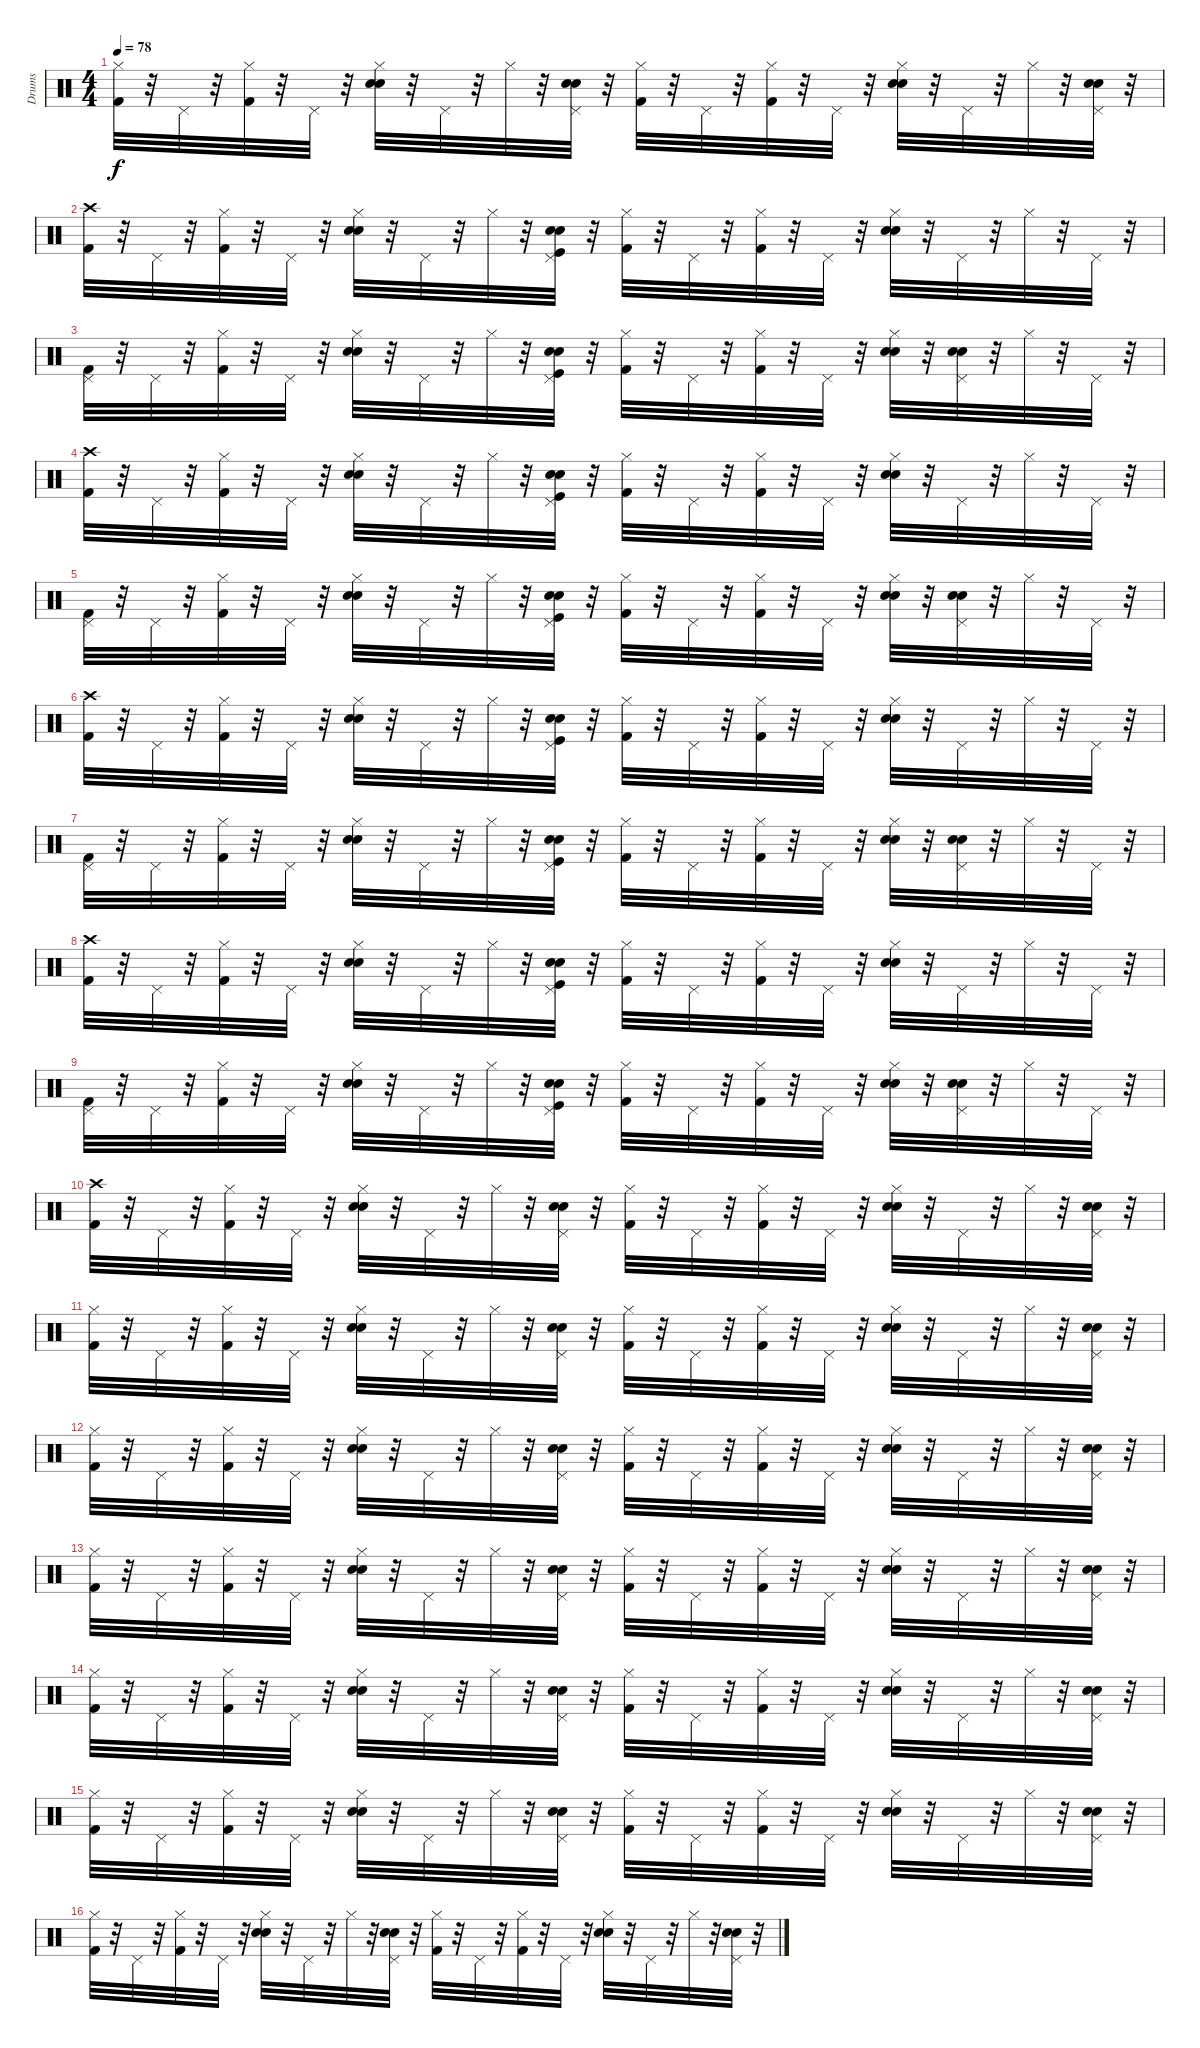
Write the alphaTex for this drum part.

\track ("Drums" "Drums") {instrument percussion}
\staff {score}
\articulation defaults
\ts (4 4)
\tempo 78
\clef neutral
\ks c
("Hi-Hat (closed)" "Kick (hit) 2").32{dy f} r.32 "Pedal Hi-Hat (hit)".32 r.32 ("Kick (hit) 2" "Hi-Hat (closed)").32 r.32 "Pedal Hi-Hat (hit)".32 r.32 ("Snare (hit) 2" "Snare (hit) 2" "Hi-Hat (closed)").32 r.32 "Pedal Hi-Hat (hit)".32 r.32 "Hi-Hat (closed)".32 r.32 ("Snare (hit) 2" "Snare (hit) 2" "Pedal Hi-Hat (hit)").32 r.32 ("Kick (hit) 2" "Hi-Hat (closed)").32 r.32 "Pedal Hi-Hat (hit)".32 r.32 ("Kick (hit) 2" "Hi-Hat (closed)").32 r.32 "Pedal Hi-Hat (hit)".32 r.32 ("Snare (hit) 2" "Snare (hit) 2" "Hi-Hat (closed)").32 r.32 "Pedal Hi-Hat (hit)".32 r.32 "Hi-Hat (closed)".32 r.32 ("Pedal Hi-Hat (hit)" "Snare (hit) 2" "Snare (hit) 2").32 r.32 |
("Crash high (hit)" "Kick (hit) 2").32 r.32 "Pedal Hi-Hat (hit)".32 r.32 ("Hi-Hat (closed)" "Kick (hit) 2").32 r.32 "Pedal Hi-Hat (hit)".32 r.32 ("Hi-Hat (closed)" "Hand Clap (hit)" "Snare (hit) 2").32 r.32 "Pedal Hi-Hat (hit)".32 r.32 "Hi-Hat (closed)".32 r.32 ("Hand Clap (hit)" "Snare (hit) 2" "Pedal Hi-Hat (hit)" "Kick (hit)").32 r.32 ("Hi-Hat (closed)" "Kick (hit) 2").32 r.32 "Pedal Hi-Hat (hit)".32 r.32 ("Hi-Hat (closed)" "Kick (hit) 2").32 r.32 "Pedal Hi-Hat (hit)".32 r.32 ("Hi-Hat (closed)" "Hand Clap (hit)" "Snare (hit) 2").32 r.32 "Pedal Hi-Hat (hit)".32 r.32 "Hi-Hat (closed)".32 r.32 "Pedal Hi-Hat (hit)".32 r.32 |
("Pedal Hi-Hat (hit)" "Kick (hit) 2").32 r.32 "Pedal Hi-Hat (hit)".32 r.32 ("Hi-Hat (closed)" "Kick (hit) 2").32 r.32 "Pedal Hi-Hat (hit)".32 r.32 ("Hi-Hat (closed)" "Hand Clap (hit)" "Snare (hit) 2").32 r.32 "Pedal Hi-Hat (hit)".32 r.32 "Hi-Hat (closed)".32 r.32 ("Hand Clap (hit)" "Snare (hit) 2" "Pedal Hi-Hat (hit)" "Kick (hit)").32 r.32 ("Hi-Hat (closed)" "Kick (hit) 2").32 r.32 "Pedal Hi-Hat (hit)".32 r.32 ("Hi-Hat (closed)" "Kick (hit) 2").32 r.32 "Pedal Hi-Hat (hit)".32 r.32 ("Hi-Hat (closed)" "Hand Clap (hit)" "Snare (hit) 2").32 r.32 ("Hand Clap (hit)" "Snare (hit) 2" "Pedal Hi-Hat (hit)").32 r.32 "Hi-Hat (closed)".32 r.32 "Pedal Hi-Hat (hit)".32 r.32 |
("Crash high (hit)" "Kick (hit) 2").32 r.32 "Pedal Hi-Hat (hit)".32 r.32 ("Hi-Hat (closed)" "Kick (hit) 2").32 r.32 "Pedal Hi-Hat (hit)".32 r.32 ("Hi-Hat (closed)" "Hand Clap (hit)" "Snare (hit) 2").32 r.32 "Pedal Hi-Hat (hit)".32 r.32 "Hi-Hat (closed)".32 r.32 ("Hand Clap (hit)" "Snare (hit) 2" "Pedal Hi-Hat (hit)" "Kick (hit)").32 r.32 ("Hi-Hat (closed)" "Kick (hit) 2").32 r.32 "Pedal Hi-Hat (hit)".32 r.32 ("Hi-Hat (closed)" "Kick (hit) 2").32 r.32 "Pedal Hi-Hat (hit)".32 r.32 ("Hi-Hat (closed)" "Hand Clap (hit)" "Snare (hit) 2").32 r.32 "Pedal Hi-Hat (hit)".32 r.32 "Hi-Hat (closed)".32 r.32 "Pedal Hi-Hat (hit)".32 r.32 |
("Pedal Hi-Hat (hit)" "Kick (hit) 2").32 r.32 "Pedal Hi-Hat (hit)".32 r.32 ("Hi-Hat (closed)" "Kick (hit) 2").32 r.32 "Pedal Hi-Hat (hit)".32 r.32 ("Hi-Hat (closed)" "Hand Clap (hit)" "Snare (hit) 2").32 r.32 "Pedal Hi-Hat (hit)".32 r.32 "Hi-Hat (closed)".32 r.32 ("Hand Clap (hit)" "Snare (hit) 2" "Pedal Hi-Hat (hit)" "Kick (hit)").32 r.32 ("Hi-Hat (closed)" "Kick (hit) 2").32 r.32 "Pedal Hi-Hat (hit)".32 r.32 ("Hi-Hat (closed)" "Kick (hit) 2").32 r.32 "Pedal Hi-Hat (hit)".32 r.32 ("Hi-Hat (closed)" "Hand Clap (hit)" "Snare (hit) 2").32 r.32 ("Hand Clap (hit)" "Snare (hit) 2" "Pedal Hi-Hat (hit)").32 r.32 "Hi-Hat (closed)".32 r.32 "Pedal Hi-Hat (hit)".32 r.32 |
("Crash high (hit)" "Kick (hit) 2").32 r.32 "Pedal Hi-Hat (hit)".32 r.32 ("Hi-Hat (closed)" "Kick (hit) 2").32 r.32 "Pedal Hi-Hat (hit)".32 r.32 ("Hi-Hat (closed)" "Hand Clap (hit)" "Snare (hit) 2").32 r.32 "Pedal Hi-Hat (hit)".32 r.32 "Hi-Hat (closed)".32 r.32 ("Hand Clap (hit)" "Snare (hit) 2" "Pedal Hi-Hat (hit)" "Kick (hit)").32 r.32 ("Hi-Hat (closed)" "Kick (hit) 2").32 r.32 "Pedal Hi-Hat (hit)".32 r.32 ("Hi-Hat (closed)" "Kick (hit) 2").32 r.32 "Pedal Hi-Hat (hit)".32 r.32 ("Hi-Hat (closed)" "Hand Clap (hit)" "Snare (hit) 2").32 r.32 "Pedal Hi-Hat (hit)".32 r.32 "Hi-Hat (closed)".32 r.32 "Pedal Hi-Hat (hit)".32 r.32 |
("Pedal Hi-Hat (hit)" "Kick (hit) 2").32 r.32 "Pedal Hi-Hat (hit)".32 r.32 ("Hi-Hat (closed)" "Kick (hit) 2").32 r.32 "Pedal Hi-Hat (hit)".32 r.32 ("Hi-Hat (closed)" "Hand Clap (hit)" "Snare (hit) 2").32 r.32 "Pedal Hi-Hat (hit)".32 r.32 "Hi-Hat (closed)".32 r.32 ("Hand Clap (hit)" "Snare (hit) 2" "Pedal Hi-Hat (hit)" "Kick (hit)").32 r.32 ("Hi-Hat (closed)" "Kick (hit) 2").32 r.32 "Pedal Hi-Hat (hit)".32 r.32 ("Hi-Hat (closed)" "Kick (hit) 2").32 r.32 "Pedal Hi-Hat (hit)".32 r.32 ("Hi-Hat (closed)" "Hand Clap (hit)" "Snare (hit) 2").32 r.32 ("Hand Clap (hit)" "Snare (hit) 2" "Pedal Hi-Hat (hit)").32 r.32 "Hi-Hat (closed)".32 r.32 "Pedal Hi-Hat (hit)".32 r.32 |
("Crash high (hit)" "Kick (hit) 2").32 r.32 "Pedal Hi-Hat (hit)".32 r.32 ("Hi-Hat (closed)" "Kick (hit) 2").32 r.32 "Pedal Hi-Hat (hit)".32 r.32 ("Hi-Hat (closed)" "Hand Clap (hit)" "Snare (hit) 2").32 r.32 "Pedal Hi-Hat (hit)".32 r.32 "Hi-Hat (closed)".32 r.32 ("Hand Clap (hit)" "Snare (hit) 2" "Pedal Hi-Hat (hit)" "Kick (hit)").32 r.32 ("Hi-Hat (closed)" "Kick (hit) 2").32 r.32 "Pedal Hi-Hat (hit)".32 r.32 ("Hi-Hat (closed)" "Kick (hit) 2").32 r.32 "Pedal Hi-Hat (hit)".32 r.32 ("Hi-Hat (closed)" "Hand Clap (hit)" "Snare (hit) 2").32 r.32 "Pedal Hi-Hat (hit)".32 r.32 "Hi-Hat (closed)".32 r.32 "Pedal Hi-Hat (hit)".32 r.32 |
("Pedal Hi-Hat (hit)" "Kick (hit) 2").32 r.32 "Pedal Hi-Hat (hit)".32 r.32 ("Hi-Hat (closed)" "Kick (hit) 2").32 r.32 "Pedal Hi-Hat (hit)".32 r.32 ("Hi-Hat (closed)" "Hand Clap (hit)" "Snare (hit) 2").32 r.32 "Pedal Hi-Hat (hit)".32 r.32 "Hi-Hat (closed)".32 r.32 ("Hand Clap (hit)" "Snare (hit) 2" "Pedal Hi-Hat (hit)" "Kick (hit)").32 r.32 ("Hi-Hat (closed)" "Kick (hit) 2").32 r.32 "Pedal Hi-Hat (hit)".32 r.32 ("Hi-Hat (closed)" "Kick (hit) 2").32 r.32 "Pedal Hi-Hat (hit)".32 r.32 ("Hi-Hat (closed)" "Hand Clap (hit)" "Snare (hit) 2").32 r.32 ("Hand Clap (hit)" "Snare (hit) 2" "Pedal Hi-Hat (hit)").32 r.32 "Hi-Hat (closed)".32 r.32 "Pedal Hi-Hat (hit)".32 r.32 |
("Kick (hit) 2" "Crash high (hit)").32 r.32 "Pedal Hi-Hat (hit)".32 r.32 ("Kick (hit) 2" "Hi-Hat (closed)").32 r.32 "Pedal Hi-Hat (hit)".32 r.32 ("Snare (hit) 2" "Snare (hit) 2" "Hi-Hat (closed)").32 r.32 "Pedal Hi-Hat (hit)".32 r.32 "Hi-Hat (closed)".32 r.32 ("Snare (hit) 2" "Snare (hit) 2" "Pedal Hi-Hat (hit)").32 r.32 ("Kick (hit) 2" "Hi-Hat (closed)").32 r.32 "Pedal Hi-Hat (hit)".32 r.32 ("Kick (hit) 2" "Hi-Hat (closed)").32 r.32 "Pedal Hi-Hat (hit)".32 r.32 ("Snare (hit) 2" "Snare (hit) 2" "Hi-Hat (closed)").32 r.32 "Pedal Hi-Hat (hit)".32 r.32 "Hi-Hat (closed)".32 r.32 ("Pedal Hi-Hat (hit)" "Snare (hit) 2" "Snare (hit) 2").32 r.32 |
("Hi-Hat (closed)" "Kick (hit) 2").32 r.32 "Pedal Hi-Hat (hit)".32 r.32 ("Kick (hit) 2" "Hi-Hat (closed)").32 r.32 "Pedal Hi-Hat (hit)".32 r.32 ("Snare (hit) 2" "Snare (hit) 2" "Hi-Hat (closed)").32 r.32 "Pedal Hi-Hat (hit)".32 r.32 "Hi-Hat (closed)".32 r.32 ("Snare (hit) 2" "Snare (hit) 2" "Pedal Hi-Hat (hit)").32 r.32 ("Kick (hit) 2" "Hi-Hat (closed)").32 r.32 "Pedal Hi-Hat (hit)".32 r.32 ("Kick (hit) 2" "Hi-Hat (closed)").32 r.32 "Pedal Hi-Hat (hit)".32 r.32 ("Snare (hit) 2" "Snare (hit) 2" "Hi-Hat (closed)").32 r.32 "Pedal Hi-Hat (hit)".32 r.32 "Hi-Hat (closed)".32 r.32 ("Pedal Hi-Hat (hit)" "Snare (hit) 2" "Snare (hit) 2").32 r.32 |
("Hi-Hat (closed)" "Kick (hit) 2").32 r.32 "Pedal Hi-Hat (hit)".32 r.32 ("Kick (hit) 2" "Hi-Hat (closed)").32 r.32 "Pedal Hi-Hat (hit)".32 r.32 ("Snare (hit) 2" "Snare (hit) 2" "Hi-Hat (closed)").32 r.32 "Pedal Hi-Hat (hit)".32 r.32 "Hi-Hat (closed)".32 r.32 ("Snare (hit) 2" "Snare (hit) 2" "Pedal Hi-Hat (hit)").32 r.32 ("Kick (hit) 2" "Hi-Hat (closed)").32 r.32 "Pedal Hi-Hat (hit)".32 r.32 ("Kick (hit) 2" "Hi-Hat (closed)").32 r.32 "Pedal Hi-Hat (hit)".32 r.32 ("Snare (hit) 2" "Snare (hit) 2" "Hi-Hat (closed)").32 r.32 "Pedal Hi-Hat (hit)".32 r.32 "Hi-Hat (closed)".32 r.32 ("Pedal Hi-Hat (hit)" "Snare (hit) 2" "Snare (hit) 2").32 r.32 |
("Hi-Hat (closed)" "Kick (hit) 2").32 r.32 "Pedal Hi-Hat (hit)".32 r.32 ("Kick (hit) 2" "Hi-Hat (closed)").32 r.32 "Pedal Hi-Hat (hit)".32 r.32 ("Snare (hit) 2" "Snare (hit) 2" "Hi-Hat (closed)").32 r.32 "Pedal Hi-Hat (hit)".32 r.32 "Hi-Hat (closed)".32 r.32 ("Snare (hit) 2" "Snare (hit) 2" "Pedal Hi-Hat (hit)").32 r.32 ("Kick (hit) 2" "Hi-Hat (closed)").32 r.32 "Pedal Hi-Hat (hit)".32 r.32 ("Kick (hit) 2" "Hi-Hat (closed)").32 r.32 "Pedal Hi-Hat (hit)".32 r.32 ("Snare (hit) 2" "Snare (hit) 2" "Hi-Hat (closed)").32 r.32 "Pedal Hi-Hat (hit)".32 r.32 "Hi-Hat (closed)".32 r.32 ("Pedal Hi-Hat (hit)" "Snare (hit) 2" "Snare (hit) 2").32 r.32 |
("Hi-Hat (closed)" "Kick (hit) 2").32 r.32 "Pedal Hi-Hat (hit)".32 r.32 ("Kick (hit) 2" "Hi-Hat (closed)").32 r.32 "Pedal Hi-Hat (hit)".32 r.32 ("Snare (hit) 2" "Snare (hit) 2" "Hi-Hat (closed)").32 r.32 "Pedal Hi-Hat (hit)".32 r.32 "Hi-Hat (closed)".32 r.32 ("Snare (hit) 2" "Snare (hit) 2" "Pedal Hi-Hat (hit)").32 r.32 ("Kick (hit) 2" "Hi-Hat (closed)").32 r.32 "Pedal Hi-Hat (hit)".32 r.32 ("Kick (hit) 2" "Hi-Hat (closed)").32 r.32 "Pedal Hi-Hat (hit)".32 r.32 ("Snare (hit) 2" "Snare (hit) 2" "Hi-Hat (closed)").32 r.32 "Pedal Hi-Hat (hit)".32 r.32 "Hi-Hat (closed)".32 r.32 ("Pedal Hi-Hat (hit)" "Snare (hit) 2" "Snare (hit) 2").32 r.32 |
("Hi-Hat (closed)" "Kick (hit) 2").32 r.32 "Pedal Hi-Hat (hit)".32 r.32 ("Kick (hit) 2" "Hi-Hat (closed)").32 r.32 "Pedal Hi-Hat (hit)".32 r.32 ("Snare (hit) 2" "Snare (hit) 2" "Hi-Hat (closed)").32 r.32 "Pedal Hi-Hat (hit)".32 r.32 "Hi-Hat (closed)".32 r.32 ("Snare (hit) 2" "Snare (hit) 2" "Pedal Hi-Hat (hit)").32 r.32 ("Kick (hit) 2" "Hi-Hat (closed)").32 r.32 "Pedal Hi-Hat (hit)".32 r.32 ("Kick (hit) 2" "Hi-Hat (closed)").32 r.32 "Pedal Hi-Hat (hit)".32 r.32 ("Snare (hit) 2" "Snare (hit) 2" "Hi-Hat (closed)").32 r.32 "Pedal Hi-Hat (hit)".32 r.32 "Hi-Hat (closed)".32 r.32 ("Pedal Hi-Hat (hit)" "Snare (hit) 2" "Snare (hit) 2").32 r.32 |
("Hi-Hat (closed)" "Kick (hit) 2").32 r.32 "Pedal Hi-Hat (hit)".32 r.32 ("Kick (hit) 2" "Hi-Hat (closed)").32 r.32 "Pedal Hi-Hat (hit)".32 r.32 ("Snare (hit) 2" "Snare (hit) 2" "Hi-Hat (closed)").32 r.32 "Pedal Hi-Hat (hit)".32 r.32 "Hi-Hat (closed)".32 r.32 ("Snare (hit) 2" "Snare (hit) 2" "Pedal Hi-Hat (hit)").32 r.32 ("Kick (hit) 2" "Hi-Hat (closed)").32 r.32 "Pedal Hi-Hat (hit)".32 r.32 ("Kick (hit) 2" "Hi-Hat (closed)").32 r.32 "Pedal Hi-Hat (hit)".32 r.32 ("Snare (hit) 2" "Snare (hit) 2" "Hi-Hat (closed)").32 r.32 "Pedal Hi-Hat (hit)".32 r.32 "Hi-Hat (closed)".32 r.32 ("Pedal Hi-Hat (hit)" "Snare (hit) 2" "Snare (hit) 2").32 r.32
